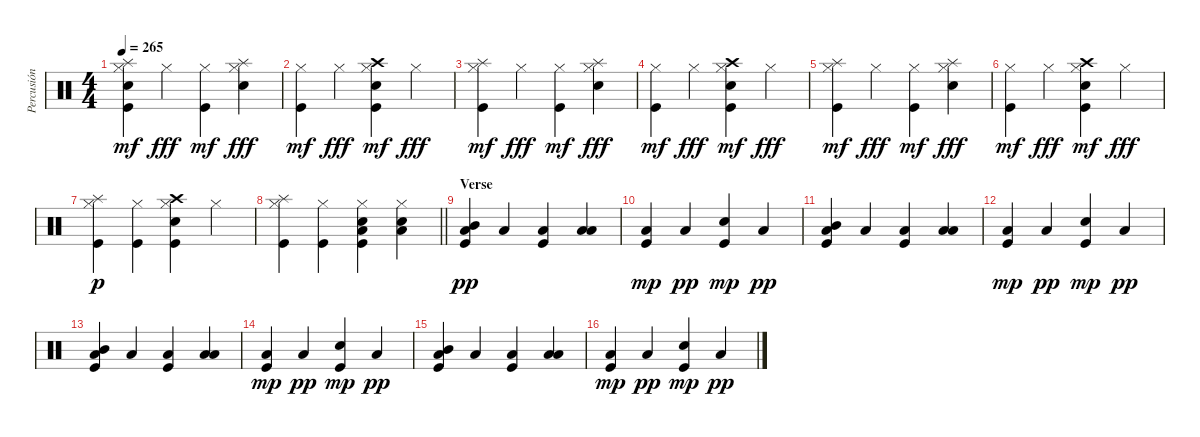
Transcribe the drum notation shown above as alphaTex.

\track ("Percusión" "Percusión") {instrument percussion}
\staff {score}
\articulation defaults
\ts (4 4)
\tempo 265
\clef neutral
\ks c
("Splash (hit)" "Electric Snare (hit)" "Hi-Hat (closed)" "Kick (hit)").4{dy mf} "Hi-Hat (closed)".4{dy fff} ("Hi-Hat (closed)" "Kick (hit)").4{dy mf} ("Splash (hit)" "Electric Snare (hit)" "Hi-Hat (closed)").4{dy fff} |
("Hi-Hat (closed)" "Kick (hit)").4{dy mf} "Hi-Hat (closed)".4{dy fff} ("Crash high (hit)" "Electric Snare (hit)" "Hi-Hat (closed)" "Kick (hit)").4{dy mf} "Hi-Hat (closed)".4{dy fff} |
("Splash (hit)" "Hi-Hat (closed)" "Kick (hit)").4{dy mf} "Hi-Hat (closed)".4{dy fff} ("Hi-Hat (closed)" "Kick (hit)").4{dy mf} ("Splash (hit)" "Electric Snare (hit)" "Hi-Hat (closed)").4{dy fff} |
("Hi-Hat (closed)" "Kick (hit)").4{dy mf} "Hi-Hat (closed)".4{dy fff} ("Crash high (hit)" "Electric Snare (hit)" "Hi-Hat (closed)" "Kick (hit)").4{dy mf} "Hi-Hat (closed)".4{dy fff} |
("Splash (hit)" "Hi-Hat (closed)" "Kick (hit)").4{dy mf} "Hi-Hat (closed)".4{dy fff} ("Hi-Hat (closed)" "Kick (hit)").4{dy mf} ("Splash (hit)" "Electric Snare (hit)" "Hi-Hat (closed)").4{dy fff} |
("Hi-Hat (closed)" "Kick (hit)").4{dy mf} "Hi-Hat (closed)".4{dy fff} ("Crash high (hit)" "Electric Snare (hit)" "Hi-Hat (closed)" "Kick (hit)").4{dy mf} "Hi-Hat (closed)".4{dy fff} |
("Splash (hit)" "Hi-Hat (closed)" "Kick (hit)").4{dy p} ("Hi-Hat (closed)" "Kick (hit)").4 ("Crash high (hit)" "Electric Snare (hit)" "Hi-Hat (closed)" "Kick (hit)").4 "Hi-Hat (closed)".4 |
\barLineRight lightlight
("Splash (hit)" "Hi-Hat (closed)" "Kick (hit)").4 ("Hi-Hat (closed)" "Kick (hit)").4 ("Low Floor Tom (hit)" "Electric Snare (hit)" "Hi-Hat (closed)" "Kick (hit)").4 ("Low Floor Tom (hit)" "Electric Snare (hit)" "Hi-Hat (closed)").4 |
\section ("" "Verse")
("Mid Tom (hit)" "Low Floor Tom (hit)" "Kick (hit)").4{dy pp} "Low Floor Tom (hit)".4 ("Low Floor Tom (hit)" "Kick (hit)").4 ("Low Tom (hit)" "Low Floor Tom (hit)").4 |
("Low Floor Tom (hit)" "Kick (hit)").4{dy mp} "Low Floor Tom (hit)".4{dy pp} ("Electric Snare (hit)" "Kick (hit)").4{dy mp} "Low Floor Tom (hit)".4{dy pp} |
("Mid Tom (hit)" "Low Floor Tom (hit)" "Kick (hit)").4 "Low Floor Tom (hit)".4 ("Low Floor Tom (hit)" "Kick (hit)").4 ("Low Tom (hit)" "Low Floor Tom (hit)").4 |
("Low Floor Tom (hit)" "Kick (hit)").4{dy mp} "Low Floor Tom (hit)".4{dy pp} ("Electric Snare (hit)" "Kick (hit)").4{dy mp} "Low Floor Tom (hit)".4{dy pp} |
("Mid Tom (hit)" "Low Floor Tom (hit)" "Kick (hit)").4 "Low Floor Tom (hit)".4 ("Low Floor Tom (hit)" "Kick (hit)").4 ("Low Tom (hit)" "Low Floor Tom (hit)").4 |
("Low Floor Tom (hit)" "Kick (hit)").4{dy mp} "Low Floor Tom (hit)".4{dy pp} ("Electric Snare (hit)" "Kick (hit)").4{dy mp} "Low Floor Tom (hit)".4{dy pp} |
("Mid Tom (hit)" "Low Floor Tom (hit)" "Kick (hit)").4 "Low Floor Tom (hit)".4 ("Low Floor Tom (hit)" "Kick (hit)").4 ("Low Tom (hit)" "Low Floor Tom (hit)").4 |
("Low Floor Tom (hit)" "Kick (hit)").4{dy mp} "Low Floor Tom (hit)".4{dy pp} ("Electric Snare (hit)" "Kick (hit)").4{dy mp} "Low Floor Tom (hit)".4{dy pp}
